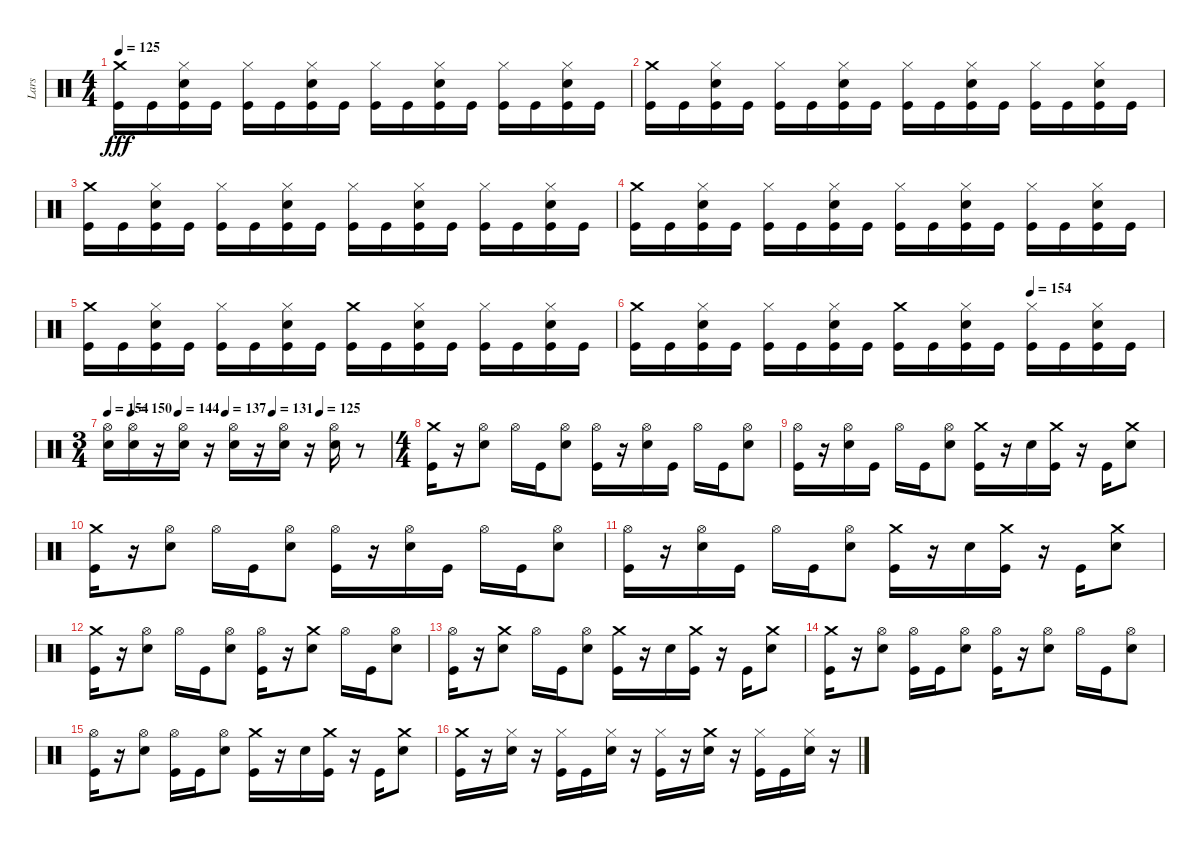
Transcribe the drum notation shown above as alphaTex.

\track ("Lars" "Lars") {instrument percussion bank 102}
\staff {score}
\articulation defaults
\ts (4 4)
\tempo 125
\clef neutral
\ks c
("Crash medium (hit)" "Kick (hit)").16{dy fff} "Kick (hit)".16 ("Snare (hit) 2" "Hi-Hat (closed)" "Kick (hit)").16 "Kick (hit)".16 ("Hi-Hat (closed)" "Kick (hit)").16 "Kick (hit)".16 ("Snare (hit) 2" "Hi-Hat (closed)" "Kick (hit)").16 "Kick (hit)".16 ("Hi-Hat (closed)" "Kick (hit)").16 "Kick (hit)".16 ("Snare (hit) 2" "Hi-Hat (closed)" "Kick (hit)").16 "Kick (hit)".16 ("Hi-Hat (closed)" "Kick (hit)").16 "Kick (hit)".16 ("Snare (hit) 2" "Hi-Hat (closed)" "Kick (hit)").16 "Kick (hit)".16 |
("Crash medium (hit)" "Kick (hit)").16 "Kick (hit)".16 ("Snare (hit) 2" "Hi-Hat (closed)" "Kick (hit)").16 "Kick (hit)".16 ("Hi-Hat (closed)" "Kick (hit)").16 "Kick (hit)".16 ("Snare (hit) 2" "Hi-Hat (closed)" "Kick (hit)").16 "Kick (hit)".16 ("Hi-Hat (closed)" "Kick (hit)").16 "Kick (hit)".16 ("Snare (hit) 2" "Hi-Hat (closed)" "Kick (hit)").16 "Kick (hit)".16 ("Hi-Hat (closed)" "Kick (hit)").16 "Kick (hit)".16 ("Snare (hit) 2" "Hi-Hat (closed)" "Kick (hit)").16 "Kick (hit)".16 |
("Crash medium (hit)" "Kick (hit)").16 "Kick (hit)".16 ("Snare (hit) 2" "Hi-Hat (closed)" "Kick (hit)").16 "Kick (hit)".16 ("Hi-Hat (closed)" "Kick (hit)").16 "Kick (hit)".16 ("Snare (hit) 2" "Hi-Hat (closed)" "Kick (hit)").16 "Kick (hit)".16 ("Hi-Hat (closed)" "Kick (hit)").16 "Kick (hit)".16 ("Snare (hit) 2" "Hi-Hat (closed)" "Kick (hit)").16 "Kick (hit)".16 ("Hi-Hat (closed)" "Kick (hit)").16 "Kick (hit)".16 ("Snare (hit) 2" "Hi-Hat (closed)" "Kick (hit)").16 "Kick (hit)".16 |
("Crash medium (hit)" "Kick (hit)").16 "Kick (hit)".16 ("Snare (hit) 2" "Hi-Hat (closed)" "Kick (hit)").16 "Kick (hit)".16 ("Hi-Hat (closed)" "Kick (hit)").16 "Kick (hit)".16 ("Snare (hit) 2" "Hi-Hat (closed)" "Kick (hit)").16 "Kick (hit)".16 ("Hi-Hat (closed)" "Kick (hit)").16 "Kick (hit)".16 ("Snare (hit) 2" "Hi-Hat (closed)" "Kick (hit)").16 "Kick (hit)".16 ("Hi-Hat (closed)" "Kick (hit)").16 "Kick (hit)".16 ("Snare (hit) 2" "Hi-Hat (closed)" "Kick (hit)").16 "Kick (hit)".16 |
("Crash medium (hit)" "Kick (hit)").16 "Kick (hit)".16 ("Snare (hit) 2" "Hi-Hat (closed)" "Kick (hit)").16 "Kick (hit)".16 ("Hi-Hat (closed)" "Kick (hit)").16 "Kick (hit)".16 ("Snare (hit) 2" "Hi-Hat (closed)" "Kick (hit)").16 "Kick (hit)".16 ("Crash medium (hit)" "Kick (hit)").16 "Kick (hit)".16 ("Snare (hit) 2" "Hi-Hat (closed)" "Kick (hit)").16 "Kick (hit)".16 ("Hi-Hat (closed)" "Kick (hit)").16 "Kick (hit)".16 ("Snare (hit) 2" "Hi-Hat (closed)" "Kick (hit)").16 "Kick (hit)".16 |
\tempo (154 0.75)
("Crash medium (hit)" "Kick (hit)").16 "Kick (hit)".16 ("Snare (hit) 2" "Hi-Hat (closed)" "Kick (hit)").16 "Kick (hit)".16 ("Hi-Hat (closed)" "Kick (hit)").16 "Kick (hit)".16 ("Snare (hit) 2" "Hi-Hat (closed)" "Kick (hit)").16 "Kick (hit)".16 ("Crash medium (hit)" "Kick (hit)").16 "Kick (hit)".16 ("Snare (hit) 2" "Hi-Hat (closed)" "Kick (hit)").16 "Kick (hit)".16 ("Hi-Hat (closed)" "Kick (hit)").16 "Kick (hit)".16 ("Snare (hit) 2" "Hi-Hat (closed)" "Kick (hit)").16 "Kick (hit)".16 |
\ts (3 4)
\tempo 154
\tempo (150 0.08333333333333333)
\tempo (144 0.25)
\tempo (137 0.4166666666666667)
\tempo (131 0.5833333333333334)
\tempo (125 0.75)
("Hi-Hat (open)" "Snare (hit) 2").16 ("Hi-Hat (open)" "Snare (hit) 2").16 r.16 ("Hi-Hat (open)" "Snare (hit) 2").16 r.16 ("Hi-Hat (open)" "Snare (hit) 2").16 r.16 ("Hi-Hat (open)" "Snare (hit) 2").16 r.16 ("Hi-Hat (open)" "Snare (hit) 2").16 r.8 |
\ts (4 4)
("Kick (hit)" "Crash medium (hit)").16 r.16 ("Snare (hit) 2" "Hi-Hat (open)").8 "Hi-Hat (open)".16 "Kick (hit)".16 ("Snare (hit) 2" "Hi-Hat (open)").8 ("Kick (hit)" "Hi-Hat (open)").16 r.16 ("Snare (hit) 2" "Hi-Hat (open)").16 "Kick (hit)".16 "Hi-Hat (open)".16 "Kick (hit)".16 ("Snare (hit) 2" "Hi-Hat (open)").8 |
("Hi-Hat (open)" "Kick (hit)").16 r.16 ("Snare (hit) 2" "Hi-Hat (open)").16 "Kick (hit)".16 "Hi-Hat (open)".16 "Kick (hit)".16 ("Snare (hit) 2" "Hi-Hat (open)").8 ("Crash medium (hit)" "Kick (hit)").16 r.16 "Snare (hit) 2".16 ("Crash medium (hit)" "Kick (hit)").16 r.16 "Kick (hit)".16 ("Crash medium (hit)" "Snare (hit) 2").8 |
("Kick (hit)" "Crash medium (hit)").16 r.16 ("Snare (hit) 2" "Hi-Hat (open)").8 "Hi-Hat (open)".16 "Kick (hit)".16 ("Snare (hit) 2" "Hi-Hat (open)").8 ("Kick (hit)" "Hi-Hat (open)").16 r.16 ("Snare (hit) 2" "Hi-Hat (open)").16 "Kick (hit)".16 "Hi-Hat (open)".16 "Kick (hit)".16 ("Snare (hit) 2" "Hi-Hat (open)").8 |
("Hi-Hat (open)" "Kick (hit)").16 r.16 ("Snare (hit) 2" "Hi-Hat (open)").16 "Kick (hit)".16 "Hi-Hat (open)".16 "Kick (hit)".16 ("Snare (hit) 2" "Hi-Hat (open)").8 ("Crash medium (hit)" "Kick (hit)").16 r.16 "Snare (hit) 2".16 ("Crash medium (hit)" "Kick (hit)").16 r.16 "Kick (hit)".16 ("Crash medium (hit)" "Snare (hit) 2").8 |
("Kick (hit)" "Crash medium (hit)").16 r.16 ("Snare (hit) 2" "Hi-Hat (open)").8 "Hi-Hat (open)".16 "Kick (hit)".16 ("Snare (hit) 2" "Hi-Hat (open)").8 ("Kick (hit)" "Hi-Hat (open)").16 r.16 ("Crash medium (hit)" "Snare (hit) 2").8 "Hi-Hat (open)".16 "Kick (hit)".16 ("Snare (hit) 2" "Hi-Hat (open)").8 |
("Hi-Hat (open)" "Kick (hit)").16 r.16 ("Crash medium (hit)" "Snare (hit) 2").8 "Hi-Hat (open)".16 "Kick (hit)".16 ("Snare (hit) 2" "Hi-Hat (open)").8 ("Crash medium (hit)" "Kick (hit)").16 r.16 "Snare (hit) 2".16 ("Crash medium (hit)" "Kick (hit)").16 r.16 "Kick (hit)".16 ("Crash medium (hit)" "Snare (hit) 2").8 |
("Kick (hit)" "Crash medium (hit)").16 r.16 ("Snare (hit) 2" "Hi-Hat (open)").8 ("Kick (hit)" "Hi-Hat (open)").16 "Kick (hit)".16 ("Snare (hit) 2" "Hi-Hat (open)").8 ("Kick (hit)" "Hi-Hat (open)").16 r.16 ("Snare (hit) 2" "Hi-Hat (open)").8 "Hi-Hat (open)".16 "Kick (hit)".16 ("Snare (hit) 2" "Hi-Hat (open)").8 |
("Hi-Hat (open)" "Kick (hit)").16 r.16 ("Snare (hit) 2" "Hi-Hat (open)").8 ("Kick (hit)" "Hi-Hat (open)").16 "Kick (hit)".16 ("Snare (hit) 2" "Hi-Hat (open)").8 ("Crash medium (hit)" "Kick (hit)").16 r.16 "Snare (hit) 2".16 ("Crash medium (hit)" "Kick (hit)").16 r.16 "Kick (hit)".16 ("Crash medium (hit)" "Snare (hit) 2").8 |
("Crash medium (hit)" "Kick (hit)").16 r.16 ("Snare (hit) 2" "Hi-Hat (closed)").16 r.16 ("Kick (hit)" "Hi-Hat (closed)").16 "Kick (hit)".16 ("Snare (hit) 2" "Hi-Hat (closed)").16 r.16 ("Hi-Hat (closed)" "Kick (hit)").16 r.16 ("Crash medium (hit)" "Snare (hit) 2").16 r.16 ("Hi-Hat (closed)" "Kick (hit)").16 "Kick (hit)".16 ("Hi-Hat (closed)" "Snare (hit) 2").16 r.16
